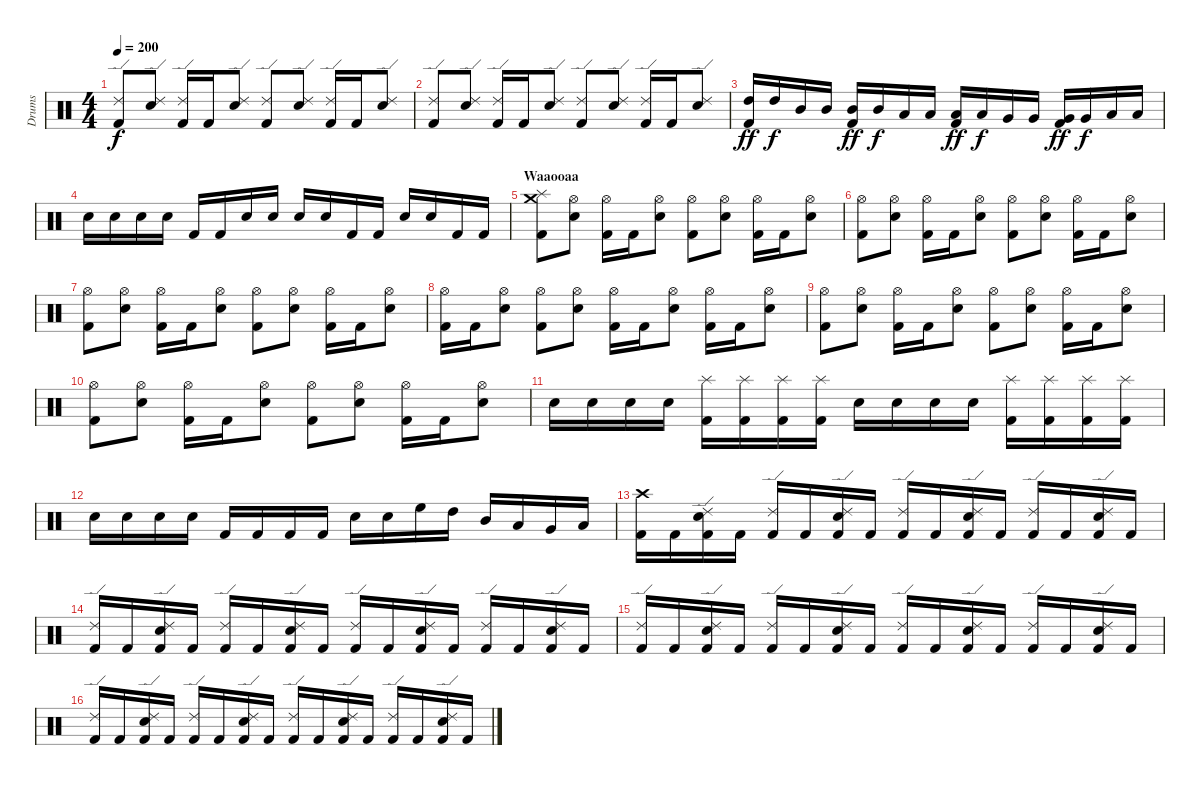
\track ("Drums" "Drums") {instrument percussion}
\staff {score}
\articulation defaults
\ts (4 4)
\tempo 200
\clef neutral
\ks c
("Kick (hit) 2" "Ride (edge) 2").8{dy f} ("Snare (hit) 2" "Ride (edge) 2").8 ("Kick (hit) 2" "Ride (edge) 2").16 "Kick (hit) 2".16 ("Snare (hit) 2" "Ride (edge) 2").8 ("Kick (hit) 2" "Ride (edge) 2").8 ("Snare (hit) 2" "Ride (edge) 2").8 ("Kick (hit) 2" "Ride (edge) 2").16 "Kick (hit) 2".16 ("Snare (hit) 2" "Ride (edge) 2").8 |
("Kick (hit) 2" "Ride (edge) 2").8 ("Snare (hit) 2" "Ride (edge) 2").8 ("Kick (hit) 2" "Ride (edge) 2").16 "Kick (hit) 2".16 ("Snare (hit) 2" "Ride (edge) 2").8 ("Kick (hit) 2" "Ride (edge) 2").8 ("Snare (hit) 2" "Ride (edge) 2").8 ("Kick (hit) 2" "Ride (edge) 2").16 "Kick (hit) 2".16 ("Snare (hit) 2" "Ride (edge) 2").8 |
("Kick (hit) 2" "High Tom (hit)").16{dy ff} "High Tom (hit)".16{dy f} "Mid Tom (hit)".16 "Mid Tom (hit)".16 ("Kick (hit) 2" "Mid Tom (hit)").16{dy ff} "Mid Tom (hit)".16{dy f} "Low Tom (hit)".16 "Low Tom (hit)".16 ("Kick (hit) 2" "Low Tom (hit)").16{dy ff} "Low Tom (hit)".16{dy f} "Very Low Tom (hit)".16 "Very Low Tom (hit)".16 ("Kick (hit) 2" "Very Low Tom (hit)").16{dy ff} "Very Low Tom (hit)".16{dy f} "Low Floor Tom (hit)".16 "Low Floor Tom (hit)".16 |
"Snare (hit) 2".16 "Snare (hit) 2".16 "Snare (hit) 2".16 "Snare (hit) 2".16 "Kick (hit) 2".16 "Kick (hit) 2".16 "Snare (hit) 2".16 "Snare (hit) 2".16 "Snare (hit) 2".16 "Snare (hit) 2".16 "Kick (hit) 2".16 "Kick (hit) 2".16 "Snare (hit) 2".16 "Snare (hit) 2".16 "Kick (hit) 2".16 "Kick (hit) 2".16 |
\section ("" "Waaooaa")
("Kick (hit) 2" "Splash (hit)" "Crash medium (hit)").8 ("Snare (hit) 2" "Hi-Hat (open)").8 ("Kick (hit) 2" "Hi-Hat (open)").16 "Kick (hit) 2".16 ("Snare (hit) 2" "Hi-Hat (open)").8 ("Kick (hit) 2" "Hi-Hat (open)").8 ("Snare (hit) 2" "Hi-Hat (open)").8 ("Kick (hit) 2" "Hi-Hat (open)").16 "Kick (hit) 2".16 ("Snare (hit) 2" "Hi-Hat (open)").8 |
("Kick (hit) 2" "Hi-Hat (open)").8 ("Snare (hit) 2" "Hi-Hat (open)").8 ("Kick (hit) 2" "Hi-Hat (open)").16 "Kick (hit) 2".16 ("Snare (hit) 2" "Hi-Hat (open)").8 ("Kick (hit) 2" "Hi-Hat (open)").8 ("Snare (hit) 2" "Hi-Hat (open)").8 ("Kick (hit) 2" "Hi-Hat (open)").16 "Kick (hit) 2".16 ("Snare (hit) 2" "Hi-Hat (open)").8 |
("Kick (hit) 2" "Hi-Hat (open)").8 ("Snare (hit) 2" "Hi-Hat (open)").8 ("Kick (hit) 2" "Hi-Hat (open)").16 "Kick (hit) 2".16 ("Snare (hit) 2" "Hi-Hat (open)").8 ("Kick (hit) 2" "Hi-Hat (open)").8 ("Snare (hit) 2" "Hi-Hat (open)").8 ("Kick (hit) 2" "Hi-Hat (open)").16 "Kick (hit) 2".16 ("Snare (hit) 2" "Hi-Hat (open)").8 |
("Kick (hit) 2" "Hi-Hat (open)").16 "Kick (hit) 2".16 ("Snare (hit) 2" "Hi-Hat (open)").8 ("Kick (hit) 2" "Hi-Hat (open)").8 ("Snare (hit) 2" "Hi-Hat (open)").8 ("Kick (hit) 2" "Hi-Hat (open)").16 "Kick (hit) 2".16 ("Snare (hit) 2" "Hi-Hat (open)").8 ("Kick (hit) 2" "Hi-Hat (open)").16 "Kick (hit) 2".16 ("Snare (hit) 2" "Hi-Hat (open)").8 |
("Kick (hit) 2" "Hi-Hat (open)").8 ("Snare (hit) 2" "Hi-Hat (open)").8 ("Kick (hit) 2" "Hi-Hat (open)").16 "Kick (hit) 2".16 ("Snare (hit) 2" "Hi-Hat (open)").8 ("Kick (hit) 2" "Hi-Hat (open)").8 ("Snare (hit) 2" "Hi-Hat (open)").8 ("Kick (hit) 2" "Hi-Hat (open)").16 "Kick (hit) 2".16 ("Snare (hit) 2" "Hi-Hat (open)").8 |
("Kick (hit) 2" "Hi-Hat (open)").8 ("Snare (hit) 2" "Hi-Hat (open)").8 ("Kick (hit) 2" "Hi-Hat (open)").16 "Kick (hit) 2".16 ("Snare (hit) 2" "Hi-Hat (open)").8 ("Kick (hit) 2" "Hi-Hat (open)").8 ("Snare (hit) 2" "Hi-Hat (open)").8 ("Kick (hit) 2" "Hi-Hat (open)").16 "Kick (hit) 2".16 ("Snare (hit) 2" "Hi-Hat (open)").8 |
"Snare (hit) 2".16 "Snare (hit) 2".16 "Snare (hit) 2".16 "Snare (hit) 2".16 ("Kick (hit) 2" "Splash (hit)").16 ("Kick (hit) 2" "Splash (hit)").16 ("Kick (hit) 2" "Splash (hit)").16 ("Kick (hit) 2" "Splash (hit)").16 "Snare (hit) 2".16 "Snare (hit) 2".16 "Snare (hit) 2".16 "Snare (hit) 2".16 ("Kick (hit) 2" "Splash (hit)").16 ("Kick (hit) 2" "Splash (hit)").16 ("Kick (hit) 2" "Splash (hit)").16 ("Kick (hit) 2" "Splash (hit)").16 |
"Snare (hit) 2".16 "Snare (hit) 2".16 "Snare (hit) 2".16 "Snare (hit) 2".16 "Kick (hit) 2".16 "Kick (hit) 2".16 "Kick (hit) 2".16 "Kick (hit) 2".16 "Snare (hit) 2".16 "Snare (hit) 2".16 "High Floor Tom (hit)".16 "High Tom (hit)".16 "Mid Tom (hit)".16 "Low Tom (hit)".16 "Very Low Tom (hit)".16 "Low Floor Tom (hit)".16 |
("Kick (hit) 2" "Crash high (hit)").16 "Kick (hit) 2".16 ("Kick (hit) 2" "Snare (hit) 2" "Ride (edge) 2").16 "Kick (hit) 2".16 ("Kick (hit) 2" "Ride (edge) 2").16 "Kick (hit) 2".16 ("Kick (hit) 2" "Snare (hit) 2" "Ride (edge) 2").16 "Kick (hit) 2".16 ("Kick (hit) 2" "Ride (edge) 2").16 "Kick (hit) 2".16 ("Kick (hit) 2" "Snare (hit) 2" "Ride (edge) 2").16 "Kick (hit) 2".16 ("Kick (hit) 2" "Ride (edge) 2").16 "Kick (hit) 2".16 ("Kick (hit) 2" "Snare (hit) 2" "Ride (edge) 2").16 "Kick (hit) 2".16 |
("Kick (hit) 2" "Ride (edge) 2").16 "Kick (hit) 2".16 ("Kick (hit) 2" "Snare (hit) 2" "Ride (edge) 2").16 "Kick (hit) 2".16 ("Kick (hit) 2" "Ride (edge) 2").16 "Kick (hit) 2".16 ("Kick (hit) 2" "Snare (hit) 2" "Ride (edge) 2").16 "Kick (hit) 2".16 ("Kick (hit) 2" "Ride (edge) 2").16 "Kick (hit) 2".16 ("Kick (hit) 2" "Snare (hit) 2" "Ride (edge) 2").16 "Kick (hit) 2".16 ("Kick (hit) 2" "Ride (edge) 2").16 "Kick (hit) 2".16 ("Kick (hit) 2" "Snare (hit) 2" "Ride (edge) 2").16 "Kick (hit) 2".16 |
("Kick (hit) 2" "Ride (edge) 2").16 "Kick (hit) 2".16 ("Kick (hit) 2" "Snare (hit) 2" "Ride (edge) 2").16 "Kick (hit) 2".16 ("Kick (hit) 2" "Ride (edge) 2").16 "Kick (hit) 2".16 ("Kick (hit) 2" "Snare (hit) 2" "Ride (edge) 2").16 "Kick (hit) 2".16 ("Kick (hit) 2" "Ride (edge) 2").16 "Kick (hit) 2".16 ("Kick (hit) 2" "Snare (hit) 2" "Ride (edge) 2").16 "Kick (hit) 2".16 ("Kick (hit) 2" "Ride (edge) 2").16 "Kick (hit) 2".16 ("Kick (hit) 2" "Snare (hit) 2" "Ride (edge) 2").16 "Kick (hit) 2".16 |
("Kick (hit) 2" "Ride (edge) 2").16 "Kick (hit) 2".16 ("Kick (hit) 2" "Snare (hit) 2" "Ride (edge) 2").16 "Kick (hit) 2".16 ("Kick (hit) 2" "Ride (edge) 2").16 "Kick (hit) 2".16 ("Kick (hit) 2" "Snare (hit) 2" "Ride (edge) 2").16 "Kick (hit) 2".16 ("Kick (hit) 2" "Ride (edge) 2").16 "Kick (hit) 2".16 ("Kick (hit) 2" "Snare (hit) 2" "Ride (edge) 2").16 "Kick (hit) 2".16 ("Kick (hit) 2" "Ride (edge) 2").16 "Kick (hit) 2".16 ("Kick (hit) 2" "Snare (hit) 2" "Ride (edge) 2").16 "Kick (hit) 2".16
